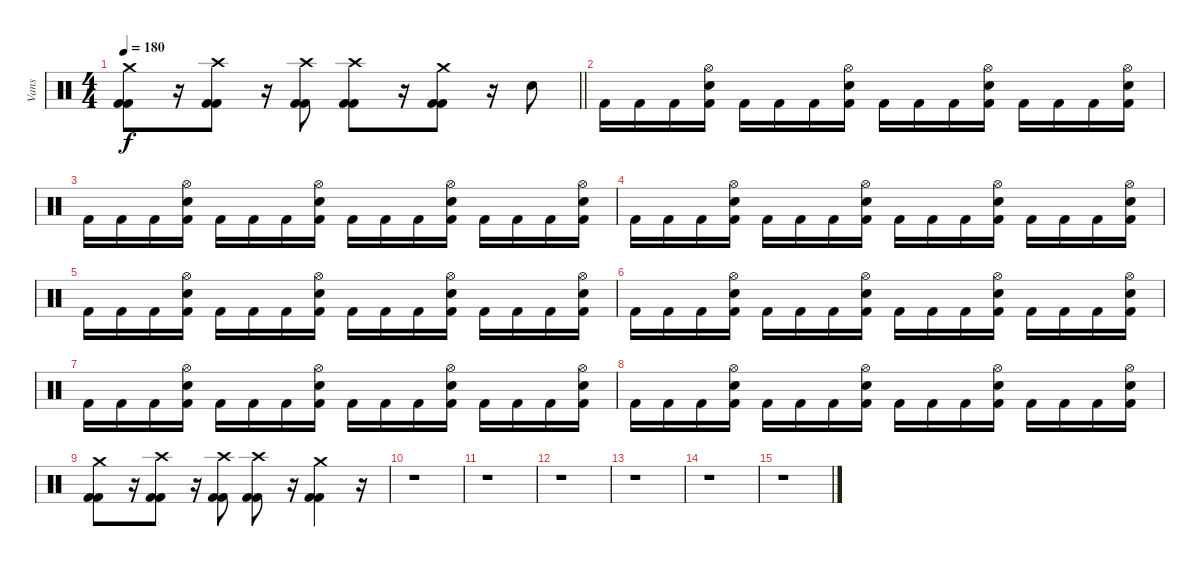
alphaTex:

\track ("Vans" "Vans") {instrument percussion}
\staff {score}
\articulation defaults
\ts (4 4)
\tempo 180
\clef neutral
\barLineRight lightlight
\ks c
("Crash medium (hit)" "Kick (hit) 2" "Kick (hit) 2").8{dy f} r.16 ("Crash high (hit)" "Kick (hit) 2" "Kick (hit) 2").8 r.16 ("Crash high (hit)" "Kick (hit) 2" "Kick (hit) 2").8 ("Crash high (hit)" "Kick (hit) 2" "Kick (hit) 2").8 r.16 ("Crash medium (hit)" "Kick (hit) 2" "Kick (hit) 2").8 r.16 "Snare (hit) 2".8 |
"Kick (hit) 2".16 "Kick (hit) 2".16 "Kick (hit) 2".16 ("Hi-Hat (open)" "Kick (hit) 2" "Snare (hit) 2").16 "Kick (hit) 2".16 "Kick (hit) 2".16 "Kick (hit) 2".16 ("Hi-Hat (open)" "Kick (hit) 2" "Snare (hit) 2").16 "Kick (hit) 2".16 "Kick (hit) 2".16 "Kick (hit) 2".16 ("Hi-Hat (open)" "Kick (hit) 2" "Snare (hit) 2").16 "Kick (hit) 2".16 "Kick (hit) 2".16 "Kick (hit) 2".16 ("Hi-Hat (open)" "Kick (hit) 2" "Snare (hit) 2").16 |
"Kick (hit) 2".16 "Kick (hit) 2".16 "Kick (hit) 2".16 ("Hi-Hat (open)" "Kick (hit) 2" "Snare (hit) 2").16 "Kick (hit) 2".16 "Kick (hit) 2".16 "Kick (hit) 2".16 ("Hi-Hat (open)" "Kick (hit) 2" "Snare (hit) 2").16 "Kick (hit) 2".16 "Kick (hit) 2".16 "Kick (hit) 2".16 ("Hi-Hat (open)" "Kick (hit) 2" "Snare (hit) 2").16 "Kick (hit) 2".16 "Kick (hit) 2".16 "Kick (hit) 2".16 ("Hi-Hat (open)" "Kick (hit) 2" "Snare (hit) 2").16 |
"Kick (hit) 2".16 "Kick (hit) 2".16 "Kick (hit) 2".16 ("Hi-Hat (open)" "Kick (hit) 2" "Snare (hit) 2").16 "Kick (hit) 2".16 "Kick (hit) 2".16 "Kick (hit) 2".16 ("Hi-Hat (open)" "Kick (hit) 2" "Snare (hit) 2").16 "Kick (hit) 2".16 "Kick (hit) 2".16 "Kick (hit) 2".16 ("Hi-Hat (open)" "Kick (hit) 2" "Snare (hit) 2").16 "Kick (hit) 2".16 "Kick (hit) 2".16 "Kick (hit) 2".16 ("Hi-Hat (open)" "Kick (hit) 2" "Snare (hit) 2").16 |
"Kick (hit) 2".16 "Kick (hit) 2".16 "Kick (hit) 2".16 ("Hi-Hat (open)" "Kick (hit) 2" "Snare (hit) 2").16 "Kick (hit) 2".16 "Kick (hit) 2".16 "Kick (hit) 2".16 ("Hi-Hat (open)" "Kick (hit) 2" "Snare (hit) 2").16 "Kick (hit) 2".16 "Kick (hit) 2".16 "Kick (hit) 2".16 ("Hi-Hat (open)" "Kick (hit) 2" "Snare (hit) 2").16 "Kick (hit) 2".16 "Kick (hit) 2".16 "Kick (hit) 2".16 ("Hi-Hat (open)" "Kick (hit) 2" "Snare (hit) 2").16 |
"Kick (hit) 2".16 "Kick (hit) 2".16 "Kick (hit) 2".16 ("Hi-Hat (open)" "Kick (hit) 2" "Snare (hit) 2").16 "Kick (hit) 2".16 "Kick (hit) 2".16 "Kick (hit) 2".16 ("Hi-Hat (open)" "Kick (hit) 2" "Snare (hit) 2").16 "Kick (hit) 2".16 "Kick (hit) 2".16 "Kick (hit) 2".16 ("Hi-Hat (open)" "Kick (hit) 2" "Snare (hit) 2").16 "Kick (hit) 2".16 "Kick (hit) 2".16 "Kick (hit) 2".16 ("Hi-Hat (open)" "Kick (hit) 2" "Snare (hit) 2").16 |
"Kick (hit) 2".16 "Kick (hit) 2".16 "Kick (hit) 2".16 ("Hi-Hat (open)" "Kick (hit) 2" "Snare (hit) 2").16 "Kick (hit) 2".16 "Kick (hit) 2".16 "Kick (hit) 2".16 ("Hi-Hat (open)" "Kick (hit) 2" "Snare (hit) 2").16 "Kick (hit) 2".16 "Kick (hit) 2".16 "Kick (hit) 2".16 ("Hi-Hat (open)" "Kick (hit) 2" "Snare (hit) 2").16 "Kick (hit) 2".16 "Kick (hit) 2".16 "Kick (hit) 2".16 ("Hi-Hat (open)" "Kick (hit) 2" "Snare (hit) 2").16 |
"Kick (hit) 2".16 "Kick (hit) 2".16 "Kick (hit) 2".16 ("Hi-Hat (open)" "Kick (hit) 2" "Snare (hit) 2").16 "Kick (hit) 2".16 "Kick (hit) 2".16 "Kick (hit) 2".16 ("Hi-Hat (open)" "Kick (hit) 2" "Snare (hit) 2").16 "Kick (hit) 2".16 "Kick (hit) 2".16 "Kick (hit) 2".16 ("Hi-Hat (open)" "Kick (hit) 2" "Snare (hit) 2").16 "Kick (hit) 2".16 "Kick (hit) 2".16 "Kick (hit) 2".16 ("Hi-Hat (open)" "Kick (hit) 2" "Snare (hit) 2").16 |
("Crash medium (hit)" "Kick (hit) 2" "Kick (hit) 2").8 r.16 ("Crash high (hit)" "Kick (hit) 2" "Kick (hit) 2").8 r.16 ("Crash high (hit)" "Kick (hit) 2" "Kick (hit) 2").8 ("Crash high (hit)" "Kick (hit) 2" "Kick (hit) 2").8 r.16 ("Crash medium (hit)" "Kick (hit) 2" "Kick (hit) 2").4 r.16 |
r.1 |
r.1 |
r.1 |
r.1 |
r.1 |
r.1
